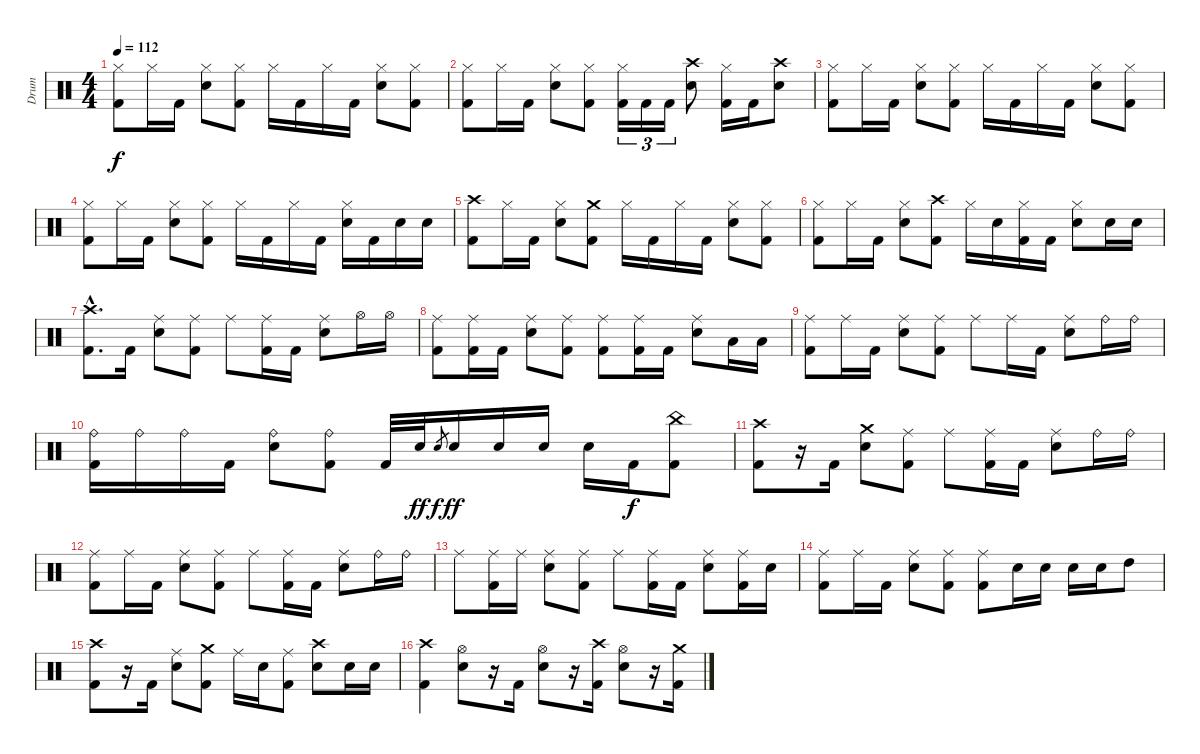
\track ("Drum" "Drum") {instrument percussion}
\staff {score}
\articulation defaults
\ts (4 4)
\tempo 112
\clef neutral
\ks c
("Hi-Hat (closed)" "Kick (hit) 2").8{dy f} "Hi-Hat (closed)".16 "Kick (hit) 2".16 ("Hi-Hat (closed)" "Electric Snare (hit)").8 ("Hi-Hat (closed)" "Kick (hit) 2").8 "Hi-Hat (closed)".16 "Kick (hit) 2".16 "Hi-Hat (closed)".16 "Kick (hit) 2".16 ("Hi-Hat (closed)" "Electric Snare (hit)").8 ("Hi-Hat (closed)" "Kick (hit) 2").8 |
("Hi-Hat (closed)" "Kick (hit) 2").8 "Hi-Hat (closed)".16 "Kick (hit) 2".16 ("Hi-Hat (closed)" "Electric Snare (hit)").8 ("Hi-Hat (closed)" "Kick (hit) 2").8 ("Hi-Hat (closed)" "Kick (hit) 2").16{tu (3 2)} "Kick (hit) 2".16{tu (3 2)} "Kick (hit) 2".16{tu (3 2)} ("Crash high (hit)" "Electric Snare (hit)").8 ("Hi-Hat (closed)" "Kick (hit) 2").16 "Kick (hit) 2".16 ("Crash high (hit)" "Electric Snare (hit)").8 |
("Hi-Hat (closed)" "Kick (hit) 2").8 "Hi-Hat (closed)".16 "Kick (hit) 2".16 ("Hi-Hat (closed)" "Electric Snare (hit)").8 ("Hi-Hat (closed)" "Kick (hit) 2").8 "Hi-Hat (closed)".16 "Kick (hit) 2".16 "Hi-Hat (closed)".16 "Kick (hit) 2".16 ("Hi-Hat (closed)" "Electric Snare (hit)").8 ("Hi-Hat (closed)" "Kick (hit) 2").8 |
("Hi-Hat (closed)" "Kick (hit) 2").8 "Hi-Hat (closed)".16 "Kick (hit) 2".16 ("Hi-Hat (closed)" "Electric Snare (hit)").8 ("Hi-Hat (closed)" "Kick (hit) 2").8 "Hi-Hat (closed)".16 "Kick (hit) 2".16 "Hi-Hat (closed)".16 "Kick (hit) 2".16 ("Hi-Hat (closed)" "Electric Snare (hit)").16 "Kick (hit) 2".16 "Electric Snare (hit)".16 "Electric Snare (hit)".16 |
("Crash high (hit)" "Kick (hit) 2").8 "Hi-Hat (closed)".16 "Kick (hit) 2".16 ("Hi-Hat (closed)" "Electric Snare (hit)").8 ("Crash medium (hit)" "Kick (hit) 2").8 "Hi-Hat (closed)".16 "Kick (hit) 2".16 "Hi-Hat (closed)".16 "Kick (hit) 2".16 ("Hi-Hat (closed)" "Electric Snare (hit)").8 ("Hi-Hat (closed)" "Kick (hit) 2").8 |
("Hi-Hat (closed)" "Kick (hit) 2").8 "Hi-Hat (closed)".16 "Kick (hit) 2".16 ("Hi-Hat (closed)" "Electric Snare (hit)").8 ("Crash high (hit)" "Kick (hit) 2").8 "Hi-Hat (closed)".16 "Electric Snare (hit)".16 ("Hi-Hat (closed)" "Kick (hit) 2").16 "Kick (hit) 2".16 ("Hi-Hat (closed)" "Electric Snare (hit)").8 "Electric Snare (hit)".16 "Electric Snare (hit)".16 |
("Crash high (hit)"{hac} "Kick (hit) 2"{hac}).8{d} "Kick (hit) 2".16 ("Ride (middle)" "Electric Snare (hit)").8 ("Ride (middle)" "Kick (hit) 2").8 "Ride (middle)".8 ("Ride (middle)" "Kick (hit) 2").16 "Kick (hit) 2".16 ("Ride (middle)" "Electric Snare (hit)").8 "Hi-Hat (open)".16 "Hi-Hat (open)".16 |
("Ride (middle)" "Kick (hit) 2").8 ("Ride (middle)" "Kick (hit) 2").16 "Kick (hit) 2".16 ("Ride (middle)" "Electric Snare (hit)").8 ("Ride (middle)" "Kick (hit) 2").8 ("Ride (middle)" "Kick (hit) 2").8 ("Ride (middle)" "Kick (hit) 2").16 "Kick (hit) 2".16 ("Ride (middle)" "Electric Snare (hit)").8 "Low Tom (hit)".16 "Low Tom (hit)".16 |
("Ride (middle)" "Kick (hit) 2").8 "Ride (middle)".16 "Kick (hit) 2".16 ("Ride (middle)" "Electric Snare (hit)").8 ("Ride (middle)" "Kick (hit) 2").8 "Ride (middle)".8 "Ride (middle)".16 "Kick (hit) 2".16 ("Ride (middle)" "Electric Snare (hit)").8 "Ride (bell)".16 "Ride (bell)".16 |
("Ride (bell)" "Kick (hit) 2").16 "Ride (bell)".16 "Ride (bell)".16 "Kick (hit) 2".16 ("Ride (bell)" "Electric Snare (hit)").8 ("Ride (bell)" "Kick (hit) 2").8 "Kick (hit) 2".32 "Electric Snare (hit)".32{dy ff} "Electric Snare (hit)".8{gr dy f} "Electric Snare (hit)".16{dy ff} "Electric Snare (hit)".16 "Electric Snare (hit)".16 "Electric Snare (hit)".16 "Kick (hit) 2".16{dy f} ("China (hit)" "Kick (hit) 2").8 |
("Crash high (hit)" "Kick (hit) 2").8 r.16 "Kick (hit) 2".16 ("Crash medium (hit)" "Electric Snare (hit)").8 ("Ride (middle)" "Kick (hit) 2").8 "Ride (middle)".8 ("Ride (middle)" "Kick (hit) 2").16 "Kick (hit) 2".16 ("Ride (middle)" "Electric Snare (hit)").8 "Ride (bell)".16 "Ride (bell)".16 |
("Ride (middle)" "Kick (hit) 2").8 "Ride (middle)".16 "Kick (hit) 2".16 ("Ride (middle)" "Electric Snare (hit)").8 ("Ride (middle)" "Kick (hit) 2").8 "Ride (middle)".8 ("Ride (middle)" "Kick (hit) 2").16 "Kick (hit) 2".16 ("Ride (middle)" "Electric Snare (hit)").8 "Ride (bell)".16 "Ride (bell)".16 |
"Ride (middle)".8 ("Ride (middle)" "Kick (hit) 2").16 "Ride (middle)".16 ("Ride (middle)" "Electric Snare (hit)").8 ("Ride (middle)" "Kick (hit) 2").8 "Ride (middle)".8 ("Ride (middle)" "Kick (hit) 2").16 "Kick (hit) 2".16 ("Ride (middle)" "Electric Snare (hit)").8 ("Ride (middle)" "Kick (hit) 2").16 "Electric Snare (hit)".16 |
("Ride (middle)" "Kick (hit) 2").8 "Ride (middle)".16 "Kick (hit) 2".16 ("Ride (middle)" "Electric Snare (hit)").8 ("Ride (middle)" "Kick (hit) 2").8 ("Ride (middle)" "Kick (hit) 2").8 "Electric Snare (hit)".16 "Electric Snare (hit)".16 "Electric Snare (hit)".16 "Electric Snare (hit)".16 "High Tom (hit)".8 |
("Crash high (hit)" "Kick (hit) 2").8 r.16 "Kick (hit) 2".16 ("Ride (middle)" "Electric Snare (hit)").8 ("Crash medium (hit)" "Kick (hit) 2").8 "Ride (middle)".16 "Electric Snare (hit)".16 ("Ride (middle)" "Kick (hit) 2").8 ("Crash high (hit)" "Electric Snare (hit)").8 "Electric Snare (hit)".16 "Electric Snare (hit)".16 |
("Crash high (hit)" "Kick (hit) 2").4 ("Hi-Hat (open)" "Electric Snare (hit)").8 r.16 "Kick (hit) 2".16 ("Hi-Hat (open)" "Electric Snare (hit)").8 r.16 ("Crash high (hit)" "Kick (hit) 2").16 ("Hi-Hat (open)" "Electric Snare (hit)").8 r.16 ("Crash medium (hit)" "Kick (hit) 2").16
